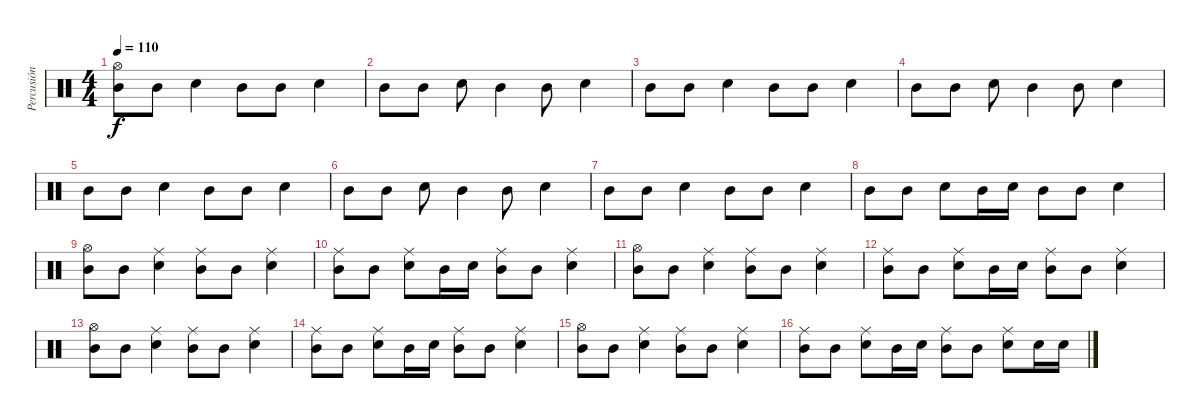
\track ("Percusión" "Percusión") {instrument percussion}
\staff {score}
\articulation defaults
\ts (4 4)
\tempo 110
\clef neutral
\ks c
("Hi-Hat (open)" "Mid Tom (hit)").8{dy f} "Mid Tom (hit)".8 "Electric Snare (hit)".4 "Mid Tom (hit)".8 "Mid Tom (hit)".8 "Electric Snare (hit)".4 |
"Mid Tom (hit)".8 "Mid Tom (hit)".8 "Electric Snare (hit)".8 "Mid Tom (hit)".4 "Mid Tom (hit)".8 "Electric Snare (hit)".4 |
"Mid Tom (hit)".8 "Mid Tom (hit)".8 "Electric Snare (hit)".4 "Mid Tom (hit)".8 "Mid Tom (hit)".8 "Electric Snare (hit)".4 |
"Mid Tom (hit)".8 "Mid Tom (hit)".8 "Electric Snare (hit)".8 "Mid Tom (hit)".4 "Mid Tom (hit)".8 "Electric Snare (hit)".4 |
"Mid Tom (hit)".8 "Mid Tom (hit)".8 "Electric Snare (hit)".4 "Mid Tom (hit)".8 "Mid Tom (hit)".8 "Electric Snare (hit)".4 |
"Mid Tom (hit)".8 "Mid Tom (hit)".8 "Electric Snare (hit)".8 "Mid Tom (hit)".4 "Mid Tom (hit)".8 "Electric Snare (hit)".4 |
"Mid Tom (hit)".8 "Mid Tom (hit)".8 "Electric Snare (hit)".4 "Mid Tom (hit)".8 "Mid Tom (hit)".8 "Electric Snare (hit)".4 |
"Mid Tom (hit)".8 "Mid Tom (hit)".8 "Electric Snare (hit)".8 "Mid Tom (hit)".16 "Electric Snare (hit)".16 "Mid Tom (hit)".8 "Mid Tom (hit)".8 "Electric Snare (hit)".4 |
("Hi-Hat (open)" "Mid Tom (hit)").8 "Mid Tom (hit)".8 ("Ride (middle)" "Electric Snare (hit)").4 ("Ride (middle)" "Mid Tom (hit)").8 "Mid Tom (hit)".8 ("Ride (middle)" "Electric Snare (hit)").4 |
("Ride (middle)" "Mid Tom (hit)").8 "Mid Tom (hit)".8 ("Ride (middle)" "Electric Snare (hit)").8 "Mid Tom (hit)".16 "Electric Snare (hit)".16 ("Ride (middle)" "Mid Tom (hit)").8 "Mid Tom (hit)".8 ("Ride (middle)" "Electric Snare (hit)").4 |
("Hi-Hat (open)" "Mid Tom (hit)").8 "Mid Tom (hit)".8 ("Ride (middle)" "Electric Snare (hit)").4 ("Ride (middle)" "Mid Tom (hit)").8 "Mid Tom (hit)".8 ("Ride (middle)" "Electric Snare (hit)").4 |
("Ride (middle)" "Mid Tom (hit)").8 "Mid Tom (hit)".8 ("Ride (middle)" "Electric Snare (hit)").8 "Mid Tom (hit)".16 "Electric Snare (hit)".16 ("Ride (middle)" "Mid Tom (hit)").8 "Mid Tom (hit)".8 ("Ride (middle)" "Electric Snare (hit)").4 |
("Hi-Hat (open)" "Mid Tom (hit)").8 "Mid Tom (hit)".8 ("Ride (middle)" "Electric Snare (hit)").4 ("Ride (middle)" "Mid Tom (hit)").8 "Mid Tom (hit)".8 ("Ride (middle)" "Electric Snare (hit)").4 |
("Ride (middle)" "Mid Tom (hit)").8 "Mid Tom (hit)".8 ("Ride (middle)" "Electric Snare (hit)").8 "Mid Tom (hit)".16 "Electric Snare (hit)".16 ("Ride (middle)" "Mid Tom (hit)").8 "Mid Tom (hit)".8 ("Ride (middle)" "Electric Snare (hit)").4 |
("Hi-Hat (open)" "Mid Tom (hit)").8 "Mid Tom (hit)".8 ("Ride (middle)" "Electric Snare (hit)").4 ("Ride (middle)" "Mid Tom (hit)").8 "Mid Tom (hit)".8 ("Ride (middle)" "Electric Snare (hit)").4 |
("Ride (middle)" "Mid Tom (hit)").8 "Mid Tom (hit)".8 ("Ride (middle)" "Electric Snare (hit)").8 "Mid Tom (hit)".16 "Electric Snare (hit)".16 ("Ride (middle)" "Mid Tom (hit)").8 "Mid Tom (hit)".8 ("Ride (middle)" "Electric Snare (hit)").8 "Electric Snare (hit)".16 "Electric Snare (hit)".16
